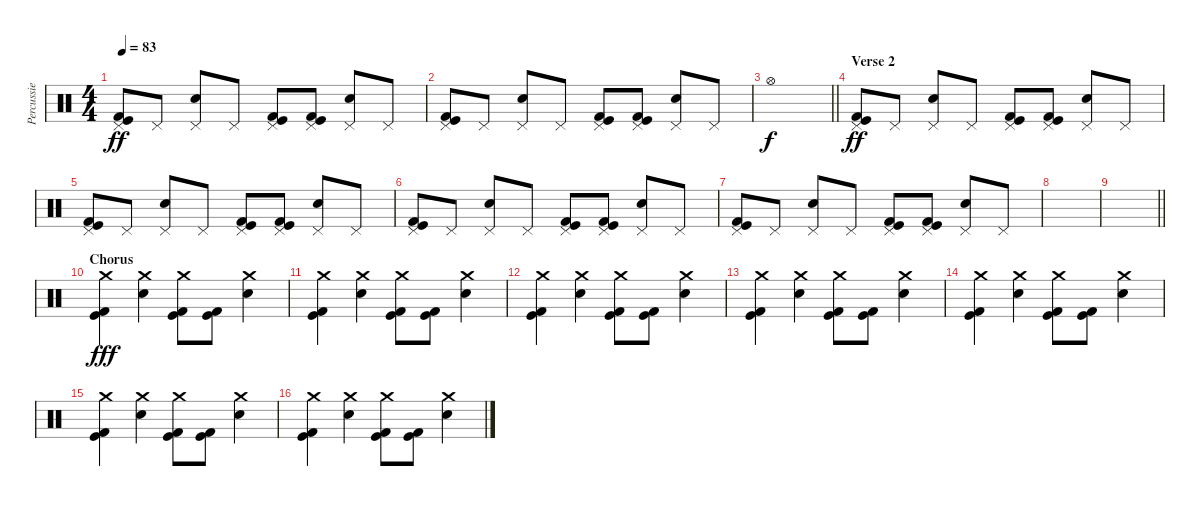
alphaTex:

\track ("Percussie" "Percussie") {instrument percussion}
\staff {score}
\articulation defaults
\ts (4 4)
\tempo 83
\clef neutral
\ks c
("Pedal Hi-Hat (hit)" "Kick (hit)" "Kick (hit) 2").8{dy ff} "Pedal Hi-Hat (hit)".8 ("Pedal Hi-Hat (hit)" "Snare (hit) 2").8 "Pedal Hi-Hat (hit)".8 ("Pedal Hi-Hat (hit)" "Kick (hit)" "Kick (hit) 2").8 ("Pedal Hi-Hat (hit)" "Kick (hit)" "Kick (hit) 2").8 ("Pedal Hi-Hat (hit)" "Snare (hit) 2").8 "Pedal Hi-Hat (hit)".8 |
("Pedal Hi-Hat (hit)" "Kick (hit)" "Kick (hit) 2").8 "Pedal Hi-Hat (hit)".8 ("Pedal Hi-Hat (hit)" "Snare (hit) 2").8 "Pedal Hi-Hat (hit)".8 ("Pedal Hi-Hat (hit)" "Kick (hit)" "Kick (hit) 2").8 ("Pedal Hi-Hat (hit)" "Kick (hit)" "Kick (hit) 2").8 ("Pedal Hi-Hat (hit)" "Snare (hit) 2").8 "Pedal Hi-Hat (hit)".8 |
\barLineRight lightlight "Hi-Hat (open)".1{dy f}
|
\section ("" "Verse 2")
("Pedal Hi-Hat (hit)" "Kick (hit)" "Kick (hit) 2").8{dy ff} "Pedal Hi-Hat (hit)".8 ("Pedal Hi-Hat (hit)" "Snare (hit) 2").8 "Pedal Hi-Hat (hit)".8 ("Pedal Hi-Hat (hit)" "Kick (hit)" "Kick (hit) 2").8 ("Pedal Hi-Hat (hit)" "Kick (hit)" "Kick (hit) 2").8 ("Pedal Hi-Hat (hit)" "Snare (hit) 2").8 "Pedal Hi-Hat (hit)".8 |
("Pedal Hi-Hat (hit)" "Kick (hit)" "Kick (hit) 2").8 "Pedal Hi-Hat (hit)".8 ("Pedal Hi-Hat (hit)" "Snare (hit) 2").8 "Pedal Hi-Hat (hit)".8 ("Pedal Hi-Hat (hit)" "Kick (hit)" "Kick (hit) 2").8 ("Pedal Hi-Hat (hit)" "Kick (hit)" "Kick (hit) 2").8 ("Pedal Hi-Hat (hit)" "Snare (hit) 2").8 "Pedal Hi-Hat (hit)".8 |
("Pedal Hi-Hat (hit)" "Kick (hit)" "Kick (hit) 2").8 "Pedal Hi-Hat (hit)".8 ("Pedal Hi-Hat (hit)" "Snare (hit) 2").8 "Pedal Hi-Hat (hit)".8 ("Pedal Hi-Hat (hit)" "Kick (hit)" "Kick (hit) 2").8 ("Pedal Hi-Hat (hit)" "Kick (hit)" "Kick (hit) 2").8 ("Pedal Hi-Hat (hit)" "Snare (hit) 2").8 "Pedal Hi-Hat (hit)".8 |
("Pedal Hi-Hat (hit)" "Kick (hit)" "Kick (hit) 2").8 "Pedal Hi-Hat (hit)".8 ("Pedal Hi-Hat (hit)" "Snare (hit) 2").8 "Pedal Hi-Hat (hit)".8 ("Pedal Hi-Hat (hit)" "Kick (hit)" "Kick (hit) 2").8 ("Pedal Hi-Hat (hit)" "Kick (hit)" "Kick (hit) 2").8 ("Pedal Hi-Hat (hit)" "Snare (hit) 2").8 "Pedal Hi-Hat (hit)".8 |
|
\barLineRight lightlight
|
\section ("" "Chorus")
("Crash medium (hit)" "Kick (hit)" "Kick (hit) 2").4{dy fff} ("Crash medium (hit)" "Snare (hit) 2").4 ("Crash medium (hit)" "Kick (hit)" "Kick (hit) 2").8 ("Kick (hit)" "Kick (hit) 2").8 ("Crash medium (hit)" "Snare (hit) 2").4 |
("Crash medium (hit)" "Kick (hit)" "Kick (hit) 2").4 ("Crash medium (hit)" "Snare (hit) 2").4 ("Crash medium (hit)" "Kick (hit)" "Kick (hit) 2").8 ("Kick (hit)" "Kick (hit) 2").8 ("Crash medium (hit)" "Snare (hit) 2").4 |
("Crash medium (hit)" "Kick (hit)" "Kick (hit) 2").4 ("Crash medium (hit)" "Snare (hit) 2").4 ("Crash medium (hit)" "Kick (hit)" "Kick (hit) 2").8 ("Kick (hit)" "Kick (hit) 2").8 ("Crash medium (hit)" "Snare (hit) 2").4 |
("Crash medium (hit)" "Kick (hit)" "Kick (hit) 2").4 ("Crash medium (hit)" "Snare (hit) 2").4 ("Crash medium (hit)" "Kick (hit)" "Kick (hit) 2").8 ("Kick (hit)" "Kick (hit) 2").8 ("Crash medium (hit)" "Snare (hit) 2").4 |
("Crash medium (hit)" "Kick (hit)" "Kick (hit) 2").4 ("Crash medium (hit)" "Snare (hit) 2").4 ("Crash medium (hit)" "Kick (hit)" "Kick (hit) 2").8 ("Kick (hit)" "Kick (hit) 2").8 ("Crash medium (hit)" "Snare (hit) 2").4 |
("Crash medium (hit)" "Kick (hit)" "Kick (hit) 2").4 ("Crash medium (hit)" "Snare (hit) 2").4 ("Crash medium (hit)" "Kick (hit)" "Kick (hit) 2").8 ("Kick (hit)" "Kick (hit) 2").8 ("Crash medium (hit)" "Snare (hit) 2").4 |
("Crash medium (hit)" "Kick (hit)" "Kick (hit) 2").4 ("Crash medium (hit)" "Snare (hit) 2").4 ("Crash medium (hit)" "Kick (hit)" "Kick (hit) 2").8 ("Kick (hit)" "Kick (hit) 2").8 ("Crash medium (hit)" "Snare (hit) 2").4
